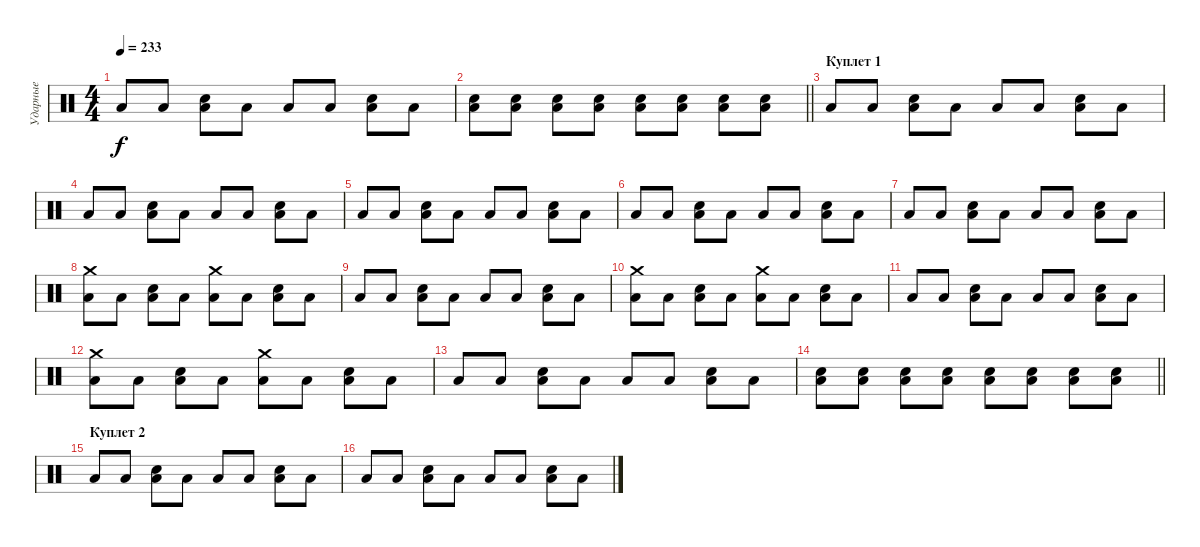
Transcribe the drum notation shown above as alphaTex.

\track ("Ударные" "Ударные") {instrument percussion}
\staff {score}
\articulation defaults
\ts (4 4)
\tempo 233
\clef neutral
\ks c "Low Tom (hit)".8{dy f} "Low Tom (hit)".8
("Electric Snare (hit)" "Low Tom (hit)").8 "Low Tom (hit)".8 "Low Tom (hit)".8 "Low Tom (hit)".8 ("Electric Snare (hit)" "Low Tom (hit)").8 "Low Tom (hit)".8 |
\barLineRight lightlight
("Electric Snare (hit)" "Low Tom (hit)").8 ("Electric Snare (hit)" "Low Tom (hit)").8 ("Electric Snare (hit)" "Low Tom (hit)").8 ("Electric Snare (hit)" "Low Tom (hit)").8 ("Electric Snare (hit)" "Low Tom (hit)").8 ("Electric Snare (hit)" "Low Tom (hit)").8 ("Electric Snare (hit)" "Low Tom (hit)").8 ("Electric Snare (hit)" "Low Tom (hit)").8 |
\section ("" "Куплет 1")
"Low Tom (hit)".8 "Low Tom (hit)".8 ("Electric Snare (hit)" "Low Tom (hit)").8 "Low Tom (hit)".8 "Low Tom (hit)".8 "Low Tom (hit)".8 ("Electric Snare (hit)" "Low Tom (hit)").8 "Low Tom (hit)".8 |
"Low Tom (hit)".8 "Low Tom (hit)".8 ("Electric Snare (hit)" "Low Tom (hit)").8 "Low Tom (hit)".8 "Low Tom (hit)".8 "Low Tom (hit)".8 ("Electric Snare (hit)" "Low Tom (hit)").8 "Low Tom (hit)".8 |
"Low Tom (hit)".8 "Low Tom (hit)".8 ("Electric Snare (hit)" "Low Tom (hit)").8 "Low Tom (hit)".8 "Low Tom (hit)".8 "Low Tom (hit)".8 ("Electric Snare (hit)" "Low Tom (hit)").8 "Low Tom (hit)".8 |
"Low Tom (hit)".8 "Low Tom (hit)".8 ("Electric Snare (hit)" "Low Tom (hit)").8 "Low Tom (hit)".8 "Low Tom (hit)".8 "Low Tom (hit)".8 ("Electric Snare (hit)" "Low Tom (hit)").8 "Low Tom (hit)".8 |
"Low Tom (hit)".8 "Low Tom (hit)".8 ("Electric Snare (hit)" "Low Tom (hit)").8 "Low Tom (hit)".8 "Low Tom (hit)".8 "Low Tom (hit)".8 ("Electric Snare (hit)" "Low Tom (hit)").8 "Low Tom (hit)".8 |
("Crash medium (hit)" "Low Tom (hit)").8 "Low Tom (hit)".8 ("Electric Snare (hit)" "Low Tom (hit)").8 "Low Tom (hit)".8 ("Crash medium (hit)" "Low Tom (hit)").8 "Low Tom (hit)".8 ("Electric Snare (hit)" "Low Tom (hit)").8 "Low Tom (hit)".8 |
"Low Tom (hit)".8 "Low Tom (hit)".8 ("Electric Snare (hit)" "Low Tom (hit)").8 "Low Tom (hit)".8 "Low Tom (hit)".8 "Low Tom (hit)".8 ("Electric Snare (hit)" "Low Tom (hit)").8 "Low Tom (hit)".8 |
("Crash medium (hit)" "Low Tom (hit)").8 "Low Tom (hit)".8 ("Electric Snare (hit)" "Low Tom (hit)").8 "Low Tom (hit)".8 ("Crash medium (hit)" "Low Tom (hit)").8 "Low Tom (hit)".8 ("Electric Snare (hit)" "Low Tom (hit)").8 "Low Tom (hit)".8 |
"Low Tom (hit)".8 "Low Tom (hit)".8 ("Electric Snare (hit)" "Low Tom (hit)").8 "Low Tom (hit)".8 "Low Tom (hit)".8 "Low Tom (hit)".8 ("Electric Snare (hit)" "Low Tom (hit)").8 "Low Tom (hit)".8 |
("Crash medium (hit)" "Low Tom (hit)").8 "Low Tom (hit)".8 ("Electric Snare (hit)" "Low Tom (hit)").8 "Low Tom (hit)".8 ("Crash medium (hit)" "Low Tom (hit)").8 "Low Tom (hit)".8 ("Electric Snare (hit)" "Low Tom (hit)").8 "Low Tom (hit)".8 |
"Low Tom (hit)".8 "Low Tom (hit)".8 ("Electric Snare (hit)" "Low Tom (hit)").8 "Low Tom (hit)".8 "Low Tom (hit)".8 "Low Tom (hit)".8 ("Electric Snare (hit)" "Low Tom (hit)").8 "Low Tom (hit)".8 |
\barLineRight lightlight
("Electric Snare (hit)" "Low Tom (hit)").8 ("Electric Snare (hit)" "Low Tom (hit)").8 ("Electric Snare (hit)" "Low Tom (hit)").8 ("Electric Snare (hit)" "Low Tom (hit)").8 ("Electric Snare (hit)" "Low Tom (hit)").8 ("Electric Snare (hit)" "Low Tom (hit)").8 ("Electric Snare (hit)" "Low Tom (hit)").8 ("Electric Snare (hit)" "Low Tom (hit)").8 |
\section ("" "Куплет 2")
"Low Tom (hit)".8 "Low Tom (hit)".8 ("Electric Snare (hit)" "Low Tom (hit)").8 "Low Tom (hit)".8 "Low Tom (hit)".8 "Low Tom (hit)".8 ("Electric Snare (hit)" "Low Tom (hit)").8 "Low Tom (hit)".8 |
"Low Tom (hit)".8 "Low Tom (hit)".8 ("Electric Snare (hit)" "Low Tom (hit)").8 "Low Tom (hit)".8 "Low Tom (hit)".8 "Low Tom (hit)".8 ("Electric Snare (hit)" "Low Tom (hit)").8 "Low Tom (hit)".8
